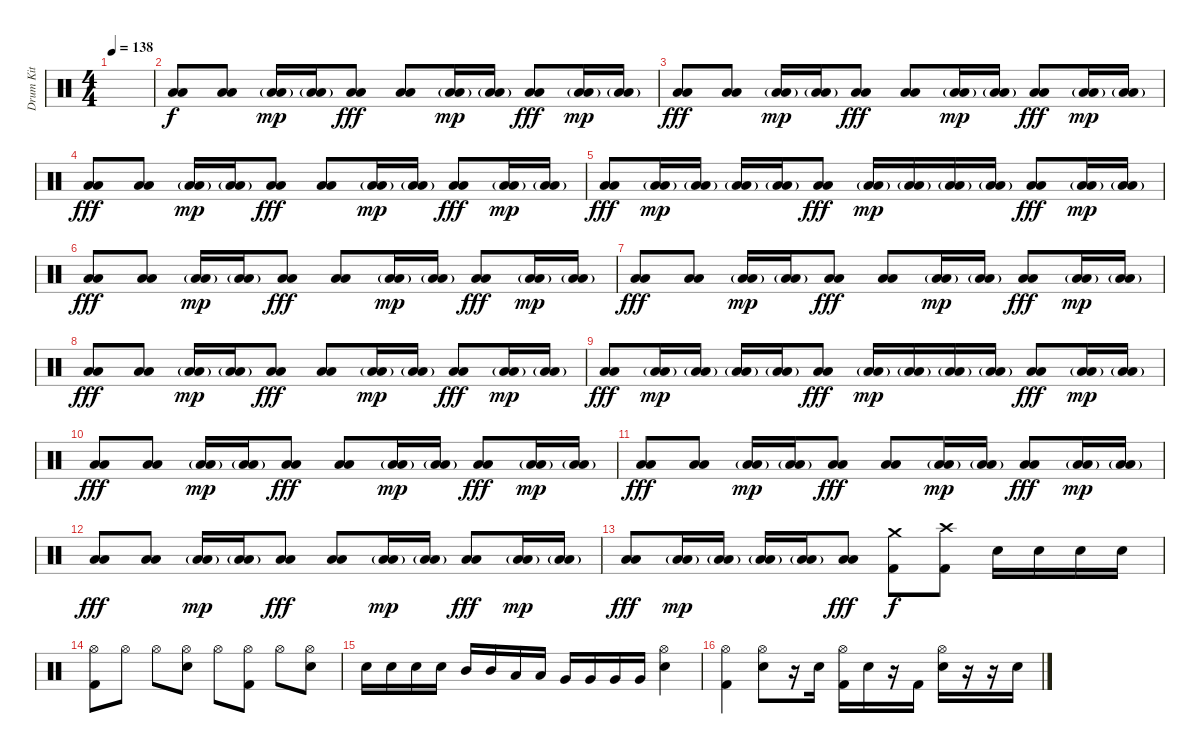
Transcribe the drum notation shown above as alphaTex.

\track ("Drum Kit" "Drum Kit") {instrument percussion}
\staff {score}
\articulation defaults
\ts (4 4)
\tempo 138
\clef neutral
\ks c
|
("Low Floor Tom (hit)" "Low Floor Tom (hit)").8 ("Low Floor Tom (hit)" "Low Floor Tom (hit)").8 ("Low Floor Tom (hit)"{g} "Low Floor Tom (hit)").16{dy mp} ("Low Floor Tom (hit)"{g} "Low Floor Tom (hit)").16 ("Low Floor Tom (hit)" "Low Floor Tom (hit)").8{dy fff} ("Low Floor Tom (hit)" "Low Floor Tom (hit)").8 ("Low Floor Tom (hit)"{g} "Low Floor Tom (hit)").16{dy mp} ("Low Floor Tom (hit)"{g} "Low Floor Tom (hit)").16 ("Low Floor Tom (hit)" "Low Floor Tom (hit)").8{dy fff} ("Low Floor Tom (hit)"{g} "Low Floor Tom (hit)").16{dy mp} ("Low Floor Tom (hit)"{g} "Low Floor Tom (hit)").16 |
("Low Floor Tom (hit)" "Low Floor Tom (hit)").8{dy fff} ("Low Floor Tom (hit)" "Low Floor Tom (hit)").8 ("Low Floor Tom (hit)"{g} "Low Floor Tom (hit)").16{dy mp} ("Low Floor Tom (hit)"{g} "Low Floor Tom (hit)").16 ("Low Floor Tom (hit)" "Low Floor Tom (hit)").8{dy fff} ("Low Floor Tom (hit)" "Low Floor Tom (hit)").8 ("Low Floor Tom (hit)"{g} "Low Floor Tom (hit)").16{dy mp} ("Low Floor Tom (hit)"{g} "Low Floor Tom (hit)").16 ("Low Floor Tom (hit)" "Low Floor Tom (hit)").8{dy fff} ("Low Floor Tom (hit)"{g} "Low Floor Tom (hit)").16{dy mp} ("Low Floor Tom (hit)"{g} "Low Floor Tom (hit)").16 |
("Low Floor Tom (hit)" "Low Floor Tom (hit)").8{dy fff} ("Low Floor Tom (hit)" "Low Floor Tom (hit)").8 ("Low Floor Tom (hit)"{g} "Low Floor Tom (hit)").16{dy mp} ("Low Floor Tom (hit)"{g} "Low Floor Tom (hit)").16 ("Low Floor Tom (hit)" "Low Floor Tom (hit)").8{dy fff} ("Low Floor Tom (hit)" "Low Floor Tom (hit)").8 ("Low Floor Tom (hit)"{g} "Low Floor Tom (hit)").16{dy mp} ("Low Floor Tom (hit)"{g} "Low Floor Tom (hit)").16 ("Low Floor Tom (hit)" "Low Floor Tom (hit)").8{dy fff} ("Low Floor Tom (hit)"{g} "Low Floor Tom (hit)").16{dy mp} ("Low Floor Tom (hit)"{g} "Low Floor Tom (hit)").16 |
("Low Floor Tom (hit)" "Low Floor Tom (hit)").8{dy fff} ("Low Floor Tom (hit)"{g} "Low Floor Tom (hit)").16{dy mp} ("Low Floor Tom (hit)"{g} "Low Floor Tom (hit)").16 ("Low Floor Tom (hit)"{g} "Low Floor Tom (hit)").16 ("Low Floor Tom (hit)"{g} "Low Floor Tom (hit)").16 ("Low Floor Tom (hit)" "Low Floor Tom (hit)").8{dy fff} ("Low Floor Tom (hit)"{g} "Low Floor Tom (hit)").16{dy mp} ("Low Floor Tom (hit)"{g} "Low Floor Tom (hit)").16 ("Low Floor Tom (hit)"{g} "Low Floor Tom (hit)").16 ("Low Floor Tom (hit)"{g} "Low Floor Tom (hit)").16 ("Low Floor Tom (hit)" "Low Floor Tom (hit)").8{dy fff} ("Low Floor Tom (hit)"{g} "Low Floor Tom (hit)").16{dy mp} ("Low Floor Tom (hit)"{g} "Low Floor Tom (hit)").16 |
("Low Floor Tom (hit)" "Low Floor Tom (hit)").8{dy fff} ("Low Floor Tom (hit)" "Low Floor Tom (hit)").8 ("Low Floor Tom (hit)"{g} "Low Floor Tom (hit)").16{dy mp} ("Low Floor Tom (hit)"{g} "Low Floor Tom (hit)").16 ("Low Floor Tom (hit)" "Low Floor Tom (hit)").8{dy fff} ("Low Floor Tom (hit)" "Low Floor Tom (hit)").8 ("Low Floor Tom (hit)"{g} "Low Floor Tom (hit)").16{dy mp} ("Low Floor Tom (hit)"{g} "Low Floor Tom (hit)").16 ("Low Floor Tom (hit)" "Low Floor Tom (hit)").8{dy fff} ("Low Floor Tom (hit)"{g} "Low Floor Tom (hit)").16{dy mp} ("Low Floor Tom (hit)"{g} "Low Floor Tom (hit)").16 |
("Low Floor Tom (hit)" "Low Floor Tom (hit)").8{dy fff} ("Low Floor Tom (hit)" "Low Floor Tom (hit)").8 ("Low Floor Tom (hit)"{g} "Low Floor Tom (hit)").16{dy mp} ("Low Floor Tom (hit)"{g} "Low Floor Tom (hit)").16 ("Low Floor Tom (hit)" "Low Floor Tom (hit)").8{dy fff} ("Low Floor Tom (hit)" "Low Floor Tom (hit)").8 ("Low Floor Tom (hit)"{g} "Low Floor Tom (hit)").16{dy mp} ("Low Floor Tom (hit)"{g} "Low Floor Tom (hit)").16 ("Low Floor Tom (hit)" "Low Floor Tom (hit)").8{dy fff} ("Low Floor Tom (hit)"{g} "Low Floor Tom (hit)").16{dy mp} ("Low Floor Tom (hit)"{g} "Low Floor Tom (hit)").16 |
("Low Floor Tom (hit)" "Low Floor Tom (hit)").8{dy fff} ("Low Floor Tom (hit)" "Low Floor Tom (hit)").8 ("Low Floor Tom (hit)"{g} "Low Floor Tom (hit)").16{dy mp} ("Low Floor Tom (hit)"{g} "Low Floor Tom (hit)").16 ("Low Floor Tom (hit)" "Low Floor Tom (hit)").8{dy fff} ("Low Floor Tom (hit)" "Low Floor Tom (hit)").8 ("Low Floor Tom (hit)"{g} "Low Floor Tom (hit)").16{dy mp} ("Low Floor Tom (hit)"{g} "Low Floor Tom (hit)").16 ("Low Floor Tom (hit)" "Low Floor Tom (hit)").8{dy fff} ("Low Floor Tom (hit)"{g} "Low Floor Tom (hit)").16{dy mp} ("Low Floor Tom (hit)"{g} "Low Floor Tom (hit)").16 |
("Low Floor Tom (hit)" "Low Floor Tom (hit)").8{dy fff} ("Low Floor Tom (hit)"{g} "Low Floor Tom (hit)").16{dy mp} ("Low Floor Tom (hit)"{g} "Low Floor Tom (hit)").16 ("Low Floor Tom (hit)"{g} "Low Floor Tom (hit)").16 ("Low Floor Tom (hit)"{g} "Low Floor Tom (hit)").16 ("Low Floor Tom (hit)" "Low Floor Tom (hit)").8{dy fff} ("Low Floor Tom (hit)"{g} "Low Floor Tom (hit)").16{dy mp} ("Low Floor Tom (hit)"{g} "Low Floor Tom (hit)").16 ("Low Floor Tom (hit)"{g} "Low Floor Tom (hit)").16 ("Low Floor Tom (hit)"{g} "Low Floor Tom (hit)").16 ("Low Floor Tom (hit)" "Low Floor Tom (hit)").8{dy fff} ("Low Floor Tom (hit)"{g} "Low Floor Tom (hit)").16{dy mp} ("Low Floor Tom (hit)"{g} "Low Floor Tom (hit)").16 |
("Low Floor Tom (hit)" "Low Floor Tom (hit)").8{dy fff} ("Low Floor Tom (hit)" "Low Floor Tom (hit)").8 ("Low Floor Tom (hit)"{g} "Low Floor Tom (hit)").16{dy mp} ("Low Floor Tom (hit)"{g} "Low Floor Tom (hit)").16 ("Low Floor Tom (hit)" "Low Floor Tom (hit)").8{dy fff} ("Low Floor Tom (hit)" "Low Floor Tom (hit)").8 ("Low Floor Tom (hit)"{g} "Low Floor Tom (hit)").16{dy mp} ("Low Floor Tom (hit)"{g} "Low Floor Tom (hit)").16 ("Low Floor Tom (hit)" "Low Floor Tom (hit)").8{dy fff} ("Low Floor Tom (hit)"{g} "Low Floor Tom (hit)").16{dy mp} ("Low Floor Tom (hit)"{g} "Low Floor Tom (hit)").16 |
("Low Floor Tom (hit)" "Low Floor Tom (hit)").8{dy fff} ("Low Floor Tom (hit)" "Low Floor Tom (hit)").8 ("Low Floor Tom (hit)"{g} "Low Floor Tom (hit)").16{dy mp} ("Low Floor Tom (hit)"{g} "Low Floor Tom (hit)").16 ("Low Floor Tom (hit)" "Low Floor Tom (hit)").8{dy fff} ("Low Floor Tom (hit)" "Low Floor Tom (hit)").8 ("Low Floor Tom (hit)"{g} "Low Floor Tom (hit)").16{dy mp} ("Low Floor Tom (hit)"{g} "Low Floor Tom (hit)").16 ("Low Floor Tom (hit)" "Low Floor Tom (hit)").8{dy fff} ("Low Floor Tom (hit)"{g} "Low Floor Tom (hit)").16{dy mp} ("Low Floor Tom (hit)"{g} "Low Floor Tom (hit)").16 |
("Low Floor Tom (hit)" "Low Floor Tom (hit)").8{dy fff} ("Low Floor Tom (hit)" "Low Floor Tom (hit)").8 ("Low Floor Tom (hit)"{g} "Low Floor Tom (hit)").16{dy mp} ("Low Floor Tom (hit)"{g} "Low Floor Tom (hit)").16 ("Low Floor Tom (hit)" "Low Floor Tom (hit)").8{dy fff} ("Low Floor Tom (hit)" "Low Floor Tom (hit)").8 ("Low Floor Tom (hit)"{g} "Low Floor Tom (hit)").16{dy mp} ("Low Floor Tom (hit)"{g} "Low Floor Tom (hit)").16 ("Low Floor Tom (hit)" "Low Floor Tom (hit)").8{dy fff} ("Low Floor Tom (hit)"{g} "Low Floor Tom (hit)").16{dy mp} ("Low Floor Tom (hit)"{g} "Low Floor Tom (hit)").16 |
("Low Floor Tom (hit)" "Low Floor Tom (hit)").8{dy fff} ("Low Floor Tom (hit)"{g} "Low Floor Tom (hit)").16{dy mp} ("Low Floor Tom (hit)"{g} "Low Floor Tom (hit)").16 ("Low Floor Tom (hit)"{g} "Low Floor Tom (hit)").16 ("Low Floor Tom (hit)"{g} "Low Floor Tom (hit)").16 ("Low Floor Tom (hit)" "Low Floor Tom (hit)").8{dy fff} ("Crash medium (hit)" "Kick (hit) 2").8{dy f} ("Crash high (hit)" "Kick (hit) 2").8 "Snare (hit) 2".16 "Snare (hit) 2".16 "Snare (hit) 2".16 "Snare (hit) 2".16 |
("Hi-Hat (open)" "Kick (hit) 2").8 "Hi-Hat (open)".8 "Hi-Hat (open)".8 ("Hi-Hat (open)" "Snare (hit) 2").8 "Hi-Hat (open)".8 ("Hi-Hat (open)" "Kick (hit) 2").8 "Hi-Hat (open)".8 ("Hi-Hat (open)" "Snare (hit) 2").8 |
"Snare (hit) 2".16 "Snare (hit) 2".16 "Snare (hit) 2".16 "Snare (hit) 2".16 "Mid Tom (hit)".16 "Mid Tom (hit)".16 "Low Tom (hit)".16 "Low Tom (hit)".16 "Very Low Tom (hit)".16 "Very Low Tom (hit)".16 "Very Low Tom (hit)".16 "Very Low Tom (hit)".16 ("Hi-Hat (open)" "Snare (hit) 2").4 |
("Hi-Hat (open)" "Kick (hit) 2").4 ("Hi-Hat (open)" "Snare (hit) 2").8 r.16 "Snare (hit) 2".16 ("Hi-Hat (open)" "Kick (hit) 2").16 "Snare (hit) 2".16 r.16 "Kick (hit) 2".16 ("Hi-Hat (open)" "Snare (hit) 2").16 r.16 r.16 "Snare (hit) 2".16
